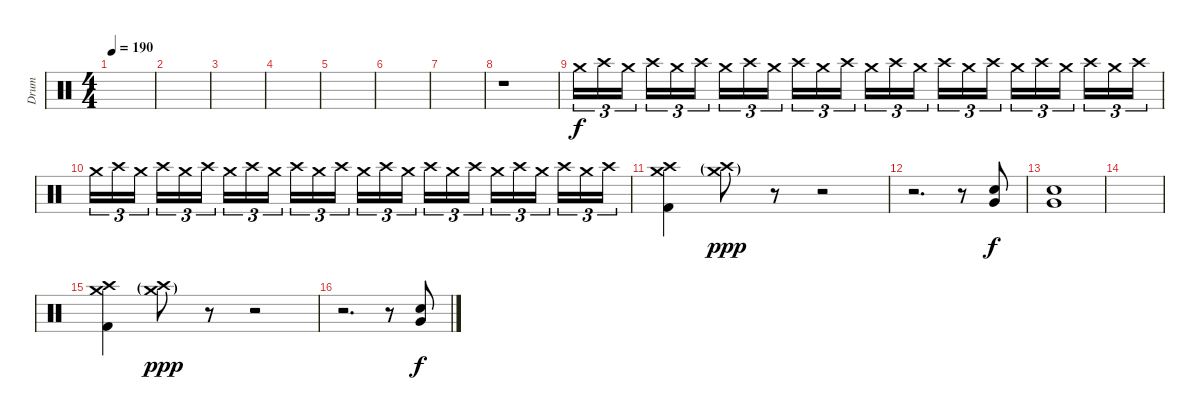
\track ("Drum" "Drum") {instrument percussion}
\staff {score}
\articulation defaults
\ts (4 4)
\tempo 190
\clef neutral
\ks c
|
|
|
|
|
|
|
r.1{volume 0} |
"Crash medium (hit)".16{tu (3 2) volume 13} "Crash high (hit)".16{tu (3 2)} "Crash medium (hit)".16{tu (3 2)} "Crash high (hit)".16{tu (3 2)} "Crash medium (hit)".16{tu (3 2)} "Crash high (hit)".16{tu (3 2)} "Crash medium (hit)".16{tu (3 2)} "Crash high (hit)".16{tu (3 2)} "Crash medium (hit)".16{tu (3 2)} "Crash high (hit)".16{tu (3 2)} "Crash medium (hit)".16{tu (3 2)} "Crash high (hit)".16{tu (3 2)} "Crash medium (hit)".16{tu (3 2)} "Crash high (hit)".16{tu (3 2)} "Crash medium (hit)".16{tu (3 2)} "Crash high (hit)".16{tu (3 2)} "Crash medium (hit)".16{tu (3 2)} "Crash high (hit)".16{tu (3 2)} "Crash medium (hit)".16{tu (3 2)} "Crash high (hit)".16{tu (3 2)} "Crash medium (hit)".16{tu (3 2)} "Crash high (hit)".16{tu (3 2)} "Crash medium (hit)".16{tu (3 2)} "Crash high (hit)".16{tu (3 2)} |
"Crash medium (hit)".16{tu (3 2)} "Crash high (hit)".16{tu (3 2)} "Crash medium (hit)".16{tu (3 2)} "Crash high (hit)".16{tu (3 2)} "Crash medium (hit)".16{tu (3 2)} "Crash high (hit)".16{tu (3 2)} "Crash medium (hit)".16{tu (3 2)} "Crash high (hit)".16{tu (3 2)} "Crash medium (hit)".16{tu (3 2)} "Crash high (hit)".16{tu (3 2)} "Crash medium (hit)".16{tu (3 2)} "Crash high (hit)".16{tu (3 2)} "Crash medium (hit)".16{tu (3 2)} "Crash high (hit)".16{tu (3 2)} "Crash medium (hit)".16{tu (3 2)} "Crash high (hit)".16{tu (3 2)} "Crash medium (hit)".16{tu (3 2)} "Crash high (hit)".16{tu (3 2)} "Crash medium (hit)".16{tu (3 2)} "Crash high (hit)".16{tu (3 2)} "Crash medium (hit)".16{tu (3 2)} "Crash high (hit)".16{tu (3 2)} "Crash medium (hit)".16{tu (3 2)} "Crash high (hit)".16{tu (3 2)} |
("Crash medium (hit)" "Crash high (hit)" "Kick (hit) 2").4 ("Crash medium (hit)"{g} "Crash high (hit)"{g}).8{dy ppp} r.8 r.2 |
r.2{d} r.8 ("Snare (hit) 2" "Very Low Tom (hit)").8{dy f} |
("Snare (hit) 2" "Very Low Tom (hit)").1 |
|
("Crash medium (hit)" "Crash high (hit)" "Kick (hit) 2").4 ("Crash medium (hit)"{g} "Crash high (hit)"{g}).8{dy ppp} r.8 r.2 |
r.2{d} r.8 ("Snare (hit) 2" "Very Low Tom (hit)").8{dy f}
